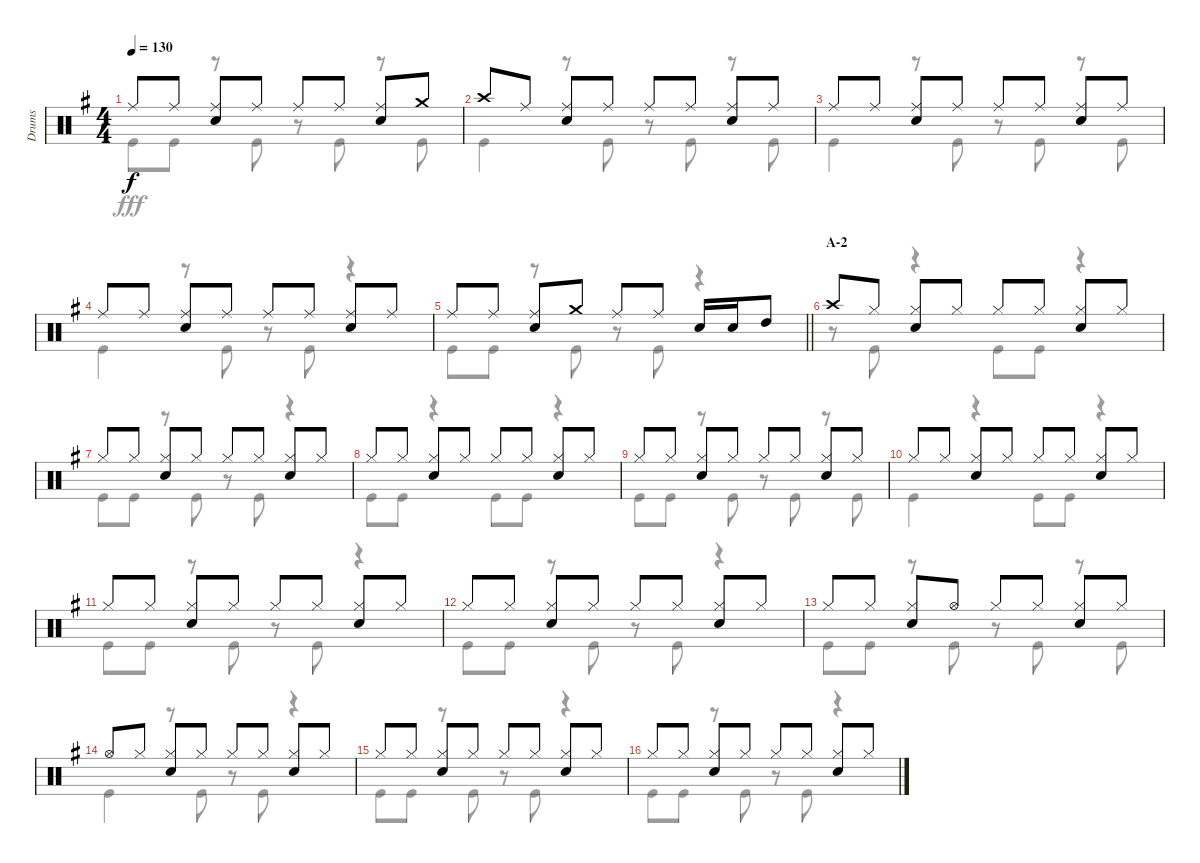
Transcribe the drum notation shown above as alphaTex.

\track ("Drums" "Drums") {instrument percussion}
\staff {score}
\articulation defaults
\voice
\ts (4 4)
\tempo 130
\clef neutral
\ks g "Ride (middle)".8{dy f} "Ride (middle)".8
("Ride (middle)" "Snare (hit) 2").8 "Ride (middle)".8 "Ride (middle)".8 "Ride (middle)".8 ("Ride (middle)" "Snare (hit) 2").8 "Crash medium (hit)".8 |
"Crash high (hit)".8 "Ride (middle)".8 ("Ride (middle)" "Snare (hit) 2").8 "Ride (middle)".8 "Ride (middle)".8 "Ride (middle)".8 ("Ride (middle)" "Snare (hit) 2").8 "Ride (middle)".8 |
"Ride (middle)".8 "Ride (middle)".8 ("Ride (middle)" "Snare (hit) 2").8 "Ride (middle)".8 "Ride (middle)".8 "Ride (middle)".8 ("Ride (middle)" "Snare (hit) 2").8 "Ride (middle)".8 |
"Ride (middle)".8 "Ride (middle)".8 ("Ride (middle)" "Snare (hit) 2").8 "Ride (middle)".8 "Ride (middle)".8 "Ride (middle)".8 ("Ride (middle)" "Snare (hit) 2").8 "Ride (middle)".8 |
\barLineRight lightlight "Ride (middle)".8 "Ride (middle)".8
("Ride (middle)" "Snare (hit) 2").8 "Crash medium (hit)".8 "Ride (middle)".8 "Ride (middle)".8 "Snare (hit) 2".16 "Snare (hit) 2".16 "High Tom (hit)".8 |
\section ("" "A-2")
"Crash high (hit)".8 "Hi-Hat (closed)".8 ("Hi-Hat (closed)" "Snare (hit) 2").8 "Hi-Hat (closed)".8 "Hi-Hat (closed)".8 "Hi-Hat (closed)".8 ("Hi-Hat (closed)" "Snare (hit) 2").8 "Hi-Hat (closed)".8 |
"Hi-Hat (closed)".8 "Hi-Hat (closed)".8 ("Hi-Hat (closed)" "Snare (hit) 2").8 "Hi-Hat (closed)".8 "Hi-Hat (closed)".8 "Hi-Hat (closed)".8 ("Hi-Hat (closed)" "Snare (hit) 2").8 "Hi-Hat (closed)".8 |
"Hi-Hat (closed)".8 "Hi-Hat (closed)".8 ("Hi-Hat (closed)" "Snare (hit) 2").8 "Hi-Hat (closed)".8 "Hi-Hat (closed)".8 "Hi-Hat (closed)".8 ("Hi-Hat (closed)" "Snare (hit) 2").8 "Hi-Hat (closed)".8 |
"Hi-Hat (closed)".8 "Hi-Hat (closed)".8 ("Hi-Hat (closed)" "Snare (hit) 2").8 "Hi-Hat (closed)".8 "Hi-Hat (closed)".8 "Hi-Hat (closed)".8 ("Hi-Hat (closed)" "Snare (hit) 2").8 "Hi-Hat (closed)".8 |
"Hi-Hat (closed)".8 "Hi-Hat (closed)".8 ("Hi-Hat (closed)" "Snare (hit) 2").8 "Hi-Hat (closed)".8 "Hi-Hat (closed)".8 "Hi-Hat (closed)".8 ("Hi-Hat (closed)" "Snare (hit) 2").8 "Hi-Hat (closed)".8 |
"Hi-Hat (closed)".8 "Hi-Hat (closed)".8 ("Hi-Hat (closed)" "Snare (hit) 2").8 "Hi-Hat (closed)".8 "Hi-Hat (closed)".8 "Hi-Hat (closed)".8 ("Hi-Hat (closed)" "Snare (hit) 2").8 "Hi-Hat (closed)".8 |
"Hi-Hat (closed)".8 "Hi-Hat (closed)".8 ("Hi-Hat (closed)" "Snare (hit) 2").8 "Hi-Hat (closed)".8 "Hi-Hat (closed)".8 "Hi-Hat (closed)".8 ("Hi-Hat (closed)" "Snare (hit) 2").8 "Hi-Hat (closed)".8 |
"Hi-Hat (closed)".8 "Hi-Hat (closed)".8 ("Hi-Hat (closed)" "Snare (hit) 2").8 "Hi-Hat (open)".8 "Hi-Hat (closed)".8 "Hi-Hat (closed)".8 ("Hi-Hat (closed)" "Snare (hit) 2").8 "Hi-Hat (closed)".8 |
"Hi-Hat (open)".8 "Hi-Hat (closed)".8 ("Hi-Hat (closed)" "Snare (hit) 2").8 "Hi-Hat (closed)".8 "Hi-Hat (closed)".8 "Hi-Hat (closed)".8 ("Hi-Hat (closed)" "Snare (hit) 2").8 "Hi-Hat (closed)".8 |
"Hi-Hat (closed)".8 "Hi-Hat (closed)".8 ("Hi-Hat (closed)" "Snare (hit) 2").8 "Hi-Hat (closed)".8 "Hi-Hat (closed)".8 "Hi-Hat (closed)".8 ("Hi-Hat (closed)" "Snare (hit) 2").8 "Hi-Hat (closed)".8 |
"Hi-Hat (closed)".8 "Hi-Hat (closed)".8 ("Hi-Hat (closed)" "Snare (hit) 2").8 "Hi-Hat (closed)".8 "Hi-Hat (closed)".8 "Hi-Hat (closed)".8 ("Hi-Hat (closed)" "Snare (hit) 2").8 "Hi-Hat (closed)".8
\voice
\clef neutral
\ottava regular
\simile none
\ks g "Kick (hit)".8{dy fff} "Kick (hit)".8
r.8 "Kick (hit)".8 r.8 "Kick (hit)".8 r.8 "Kick (hit)".8 |
"Kick (hit)".4 r.8 "Kick (hit)".8 r.8 "Kick (hit)".8 r.8 "Kick (hit)".8 |
"Kick (hit)".4 r.8 "Kick (hit)".8 r.8 "Kick (hit)".8 r.8 "Kick (hit)".8 |
"Kick (hit)".4 r.8 "Kick (hit)".8 r.8 "Kick (hit)".8 r.4 |
\barLineRight lightlight "Kick (hit)".8 "Kick (hit)".8
r.8 "Kick (hit)".8 r.8 "Kick (hit)".8 r.4 |
r.8 "Kick (hit)".8 r.4 "Kick (hit)".8 "Kick (hit)".8 r.4 |
"Kick (hit)".8 "Kick (hit)".8 r.8 "Kick (hit)".8 r.8 "Kick (hit)".8 r.4 |
"Kick (hit)".8 "Kick (hit)".8 r.4 "Kick (hit)".8 "Kick (hit)".8 r.4 |
"Kick (hit)".8 "Kick (hit)".8 r.8 "Kick (hit)".8 r.8 "Kick (hit)".8 r.8 "Kick (hit)".8 |
"Kick (hit)".4 r.4 "Kick (hit)".8 "Kick (hit)".8 r.4 |
"Kick (hit)".8 "Kick (hit)".8 r.8 "Kick (hit)".8 r.8 "Kick (hit)".8 r.4 |
"Kick (hit)".8 "Kick (hit)".8 r.8 "Kick (hit)".8 r.8 "Kick (hit)".8 r.4 |
"Kick (hit)".8 "Kick (hit)".8 r.8 "Kick (hit)".8 r.8 "Kick (hit)".8 r.8 "Kick (hit)".8 |
"Kick (hit)".4 r.8 "Kick (hit)".8 r.8 "Kick (hit)".8 r.4 |
"Kick (hit)".8 "Kick (hit)".8 r.8 "Kick (hit)".8 r.8 "Kick (hit)".8 r.4 |
"Kick (hit)".8 "Kick (hit)".8 r.8 "Kick (hit)".8 r.8 "Kick (hit)".8 r.4
